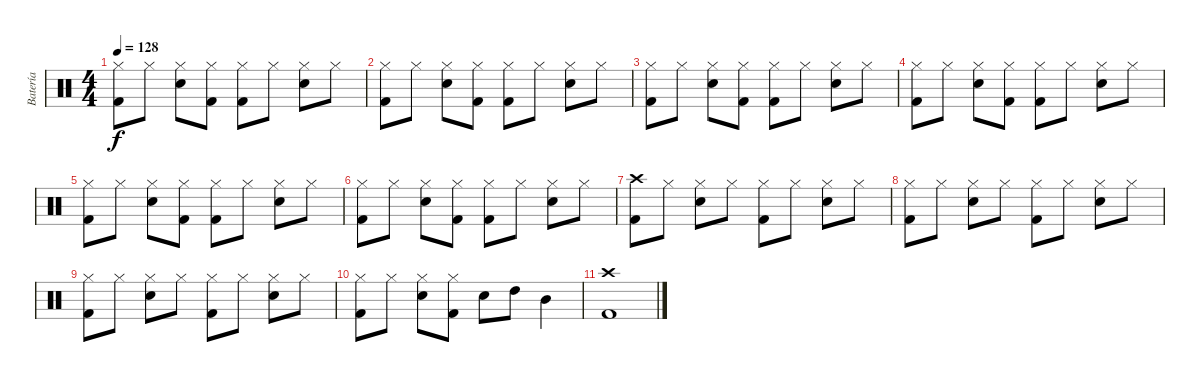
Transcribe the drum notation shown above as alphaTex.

\track ("Batería" "Batería") {instrument percussion}
\staff {score}
\articulation defaults
\ts (4 4)
\tempo 128
\clef neutral
\ks c
("Hi-Hat (closed)" "Kick (hit) 2").8{dy f} "Hi-Hat (closed)".8 ("Hi-Hat (closed)" "Electric Snare (hit)").8 ("Hi-Hat (closed)" "Kick (hit) 2").8 ("Hi-Hat (closed)" "Kick (hit) 2").8 "Hi-Hat (closed)".8 ("Hi-Hat (closed)" "Electric Snare (hit)").8 "Hi-Hat (closed)".8 |
("Hi-Hat (closed)" "Kick (hit) 2").8 "Hi-Hat (closed)".8 ("Hi-Hat (closed)" "Electric Snare (hit)").8 ("Hi-Hat (closed)" "Kick (hit) 2").8 ("Hi-Hat (closed)" "Kick (hit) 2").8 "Hi-Hat (closed)".8 ("Hi-Hat (closed)" "Electric Snare (hit)").8 "Hi-Hat (closed)".8 |
("Hi-Hat (closed)" "Kick (hit) 2").8 "Hi-Hat (closed)".8 ("Hi-Hat (closed)" "Electric Snare (hit)").8 ("Hi-Hat (closed)" "Kick (hit) 2").8 ("Hi-Hat (closed)" "Kick (hit) 2").8 "Hi-Hat (closed)".8 ("Hi-Hat (closed)" "Electric Snare (hit)").8 "Hi-Hat (closed)".8 |
("Hi-Hat (closed)" "Kick (hit) 2").8 "Hi-Hat (closed)".8 ("Hi-Hat (closed)" "Electric Snare (hit)").8 ("Hi-Hat (closed)" "Kick (hit) 2").8 ("Hi-Hat (closed)" "Kick (hit) 2").8 "Hi-Hat (closed)".8 ("Hi-Hat (closed)" "Electric Snare (hit)").8 "Hi-Hat (closed)".8 |
("Hi-Hat (closed)" "Kick (hit) 2").8 "Hi-Hat (closed)".8 ("Hi-Hat (closed)" "Electric Snare (hit)").8 ("Hi-Hat (closed)" "Kick (hit) 2").8 ("Hi-Hat (closed)" "Kick (hit) 2").8 "Hi-Hat (closed)".8 ("Hi-Hat (closed)" "Electric Snare (hit)").8 "Hi-Hat (closed)".8 |
("Hi-Hat (closed)" "Kick (hit) 2").8 "Hi-Hat (closed)".8 ("Hi-Hat (closed)" "Electric Snare (hit)").8 ("Hi-Hat (closed)" "Kick (hit) 2").8 ("Hi-Hat (closed)" "Kick (hit) 2").8 "Hi-Hat (closed)".8 ("Hi-Hat (closed)" "Electric Snare (hit)").8 "Hi-Hat (closed)".8 |
("Crash high (hit)" "Kick (hit) 2").8 "Hi-Hat (closed)".8 ("Hi-Hat (closed)" "Electric Snare (hit)").8 "Hi-Hat (closed)".8 ("Hi-Hat (closed)" "Kick (hit) 2").8 "Hi-Hat (closed)".8 ("Hi-Hat (closed)" "Electric Snare (hit)").8 "Hi-Hat (closed)".8 |
("Hi-Hat (closed)" "Kick (hit) 2").8 "Hi-Hat (closed)".8 ("Hi-Hat (closed)" "Electric Snare (hit)").8 "Hi-Hat (closed)".8 ("Hi-Hat (closed)" "Kick (hit) 2").8 "Hi-Hat (closed)".8 ("Hi-Hat (closed)" "Electric Snare (hit)").8 "Hi-Hat (closed)".8 |
("Hi-Hat (closed)" "Kick (hit) 2").8 "Hi-Hat (closed)".8 ("Hi-Hat (closed)" "Electric Snare (hit)").8 "Hi-Hat (closed)".8 ("Hi-Hat (closed)" "Kick (hit) 2").8 "Hi-Hat (closed)".8 ("Hi-Hat (closed)" "Electric Snare (hit)").8 "Hi-Hat (closed)".8 |
("Hi-Hat (closed)" "Kick (hit) 2").8 "Hi-Hat (closed)".8 ("Hi-Hat (closed)" "Electric Snare (hit)").8 ("Hi-Hat (closed)" "Kick (hit) 2").8 "Electric Snare (hit)".8 "High Tom (hit)".8 "Mid Tom (hit)".4 |
("Crash high (hit)" "Kick (hit) 2").1
